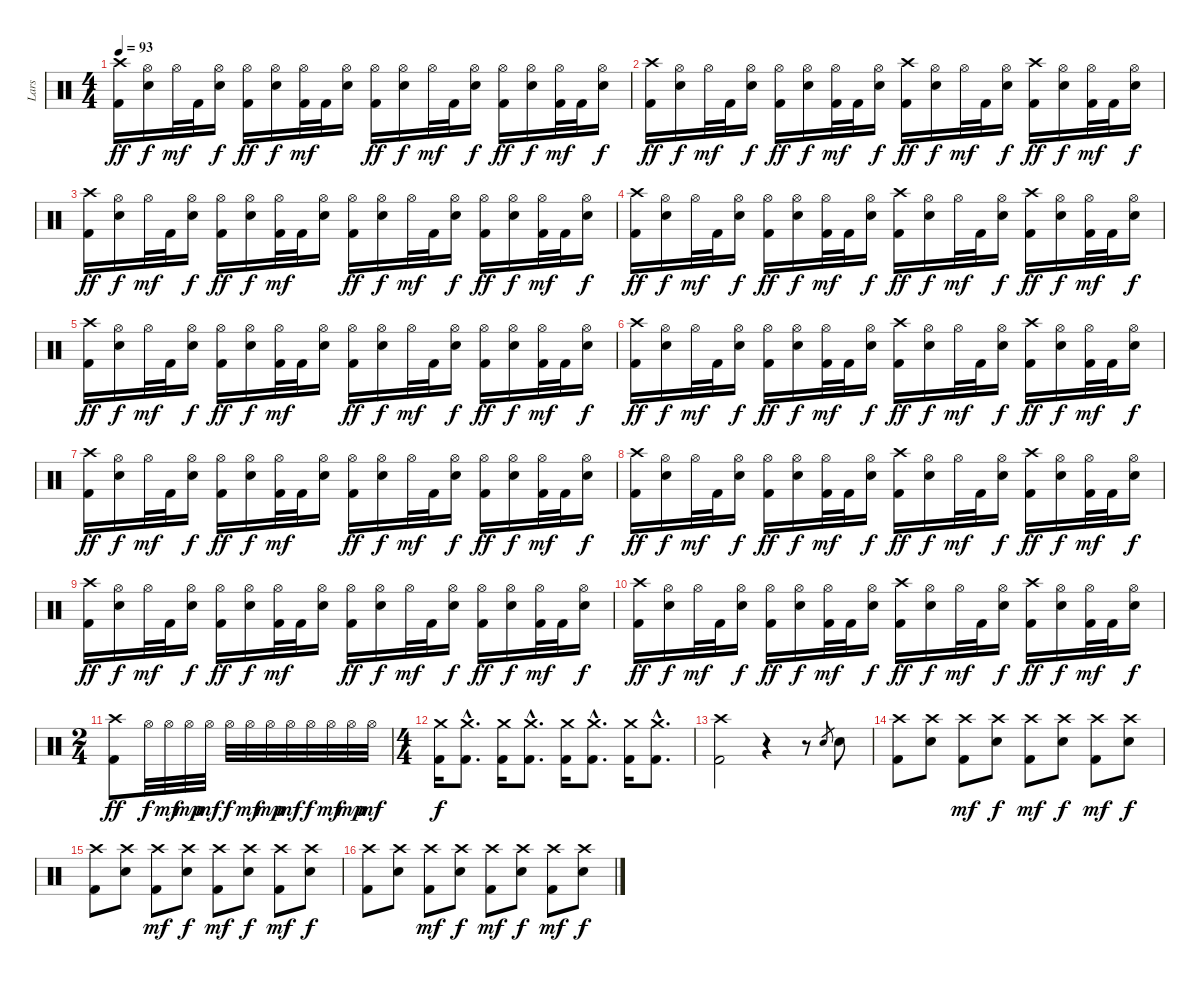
\track ("Lars" "Lars") {instrument percussion}
\staff {score}
\articulation defaults
\ts (4 4)
\tempo 93
\clef neutral
\ks c
("Crash high (hit)" "Kick (hit) 2").16{dy ff} ("Hi-Hat (open)" "Snare (hit) 2").16{dy f} "Hi-Hat (open)".32{dy mf} "Kick (hit) 2".32 ("Hi-Hat (open)" "Snare (hit) 2").16{dy f} ("Hi-Hat (open)" "Kick (hit) 2").16{dy ff} ("Hi-Hat (open)" "Snare (hit) 2").16{dy f} ("Hi-Hat (open)" "Kick (hit) 2").32{dy mf} "Kick (hit) 2".32 ("Hi-Hat (open)" "Snare (hit) 2").16 ("Hi-Hat (open)" "Kick (hit) 2").16{dy ff} ("Hi-Hat (open)" "Snare (hit) 2").16{dy f} "Hi-Hat (open)".32{dy mf} "Kick (hit) 2".32 ("Hi-Hat (open)" "Snare (hit) 2").16{dy f} ("Hi-Hat (open)" "Kick (hit) 2").16{dy ff} ("Hi-Hat (open)" "Snare (hit) 2").16{dy f} ("Hi-Hat (open)" "Kick (hit) 2").32{dy mf} "Kick (hit) 2".32 ("Hi-Hat (open)" "Snare (hit) 2").16{dy f} |
("Crash high (hit)" "Kick (hit) 2").16{dy ff} ("Hi-Hat (open)" "Snare (hit) 2").16{dy f} "Hi-Hat (open)".32{dy mf} "Kick (hit) 2".32 ("Hi-Hat (open)" "Snare (hit) 2").16{dy f} ("Hi-Hat (open)" "Kick (hit) 2").16{dy ff} ("Hi-Hat (open)" "Snare (hit) 2").16{dy f} ("Hi-Hat (open)" "Kick (hit) 2").32{dy mf} "Kick (hit) 2".32 ("Hi-Hat (open)" "Snare (hit) 2").16{dy f} ("Crash high (hit)" "Kick (hit) 2").16{dy ff} ("Hi-Hat (open)" "Snare (hit) 2").16{dy f} "Hi-Hat (open)".32{dy mf} "Kick (hit) 2".32 ("Hi-Hat (open)" "Snare (hit) 2").16{dy f} ("Crash high (hit)" "Kick (hit) 2").16{dy ff} ("Hi-Hat (open)" "Snare (hit) 2").16{dy f} ("Hi-Hat (open)" "Kick (hit) 2").32{dy mf} "Kick (hit) 2".32 ("Hi-Hat (open)" "Snare (hit) 2").16{dy f} |
("Crash high (hit)" "Kick (hit) 2").16{dy ff} ("Hi-Hat (open)" "Snare (hit) 2").16{dy f} "Hi-Hat (open)".32{dy mf} "Kick (hit) 2".32 ("Hi-Hat (open)" "Snare (hit) 2").16{dy f} ("Hi-Hat (open)" "Kick (hit) 2").16{dy ff} ("Hi-Hat (open)" "Snare (hit) 2").16{dy f} ("Hi-Hat (open)" "Kick (hit) 2").32{dy mf} "Kick (hit) 2".32 ("Hi-Hat (open)" "Snare (hit) 2").16 ("Hi-Hat (open)" "Kick (hit) 2").16{dy ff} ("Hi-Hat (open)" "Snare (hit) 2").16{dy f} "Hi-Hat (open)".32{dy mf} "Kick (hit) 2".32 ("Hi-Hat (open)" "Snare (hit) 2").16{dy f} ("Hi-Hat (open)" "Kick (hit) 2").16{dy ff} ("Hi-Hat (open)" "Snare (hit) 2").16{dy f} ("Hi-Hat (open)" "Kick (hit) 2").32{dy mf} "Kick (hit) 2".32 ("Hi-Hat (open)" "Snare (hit) 2").16{dy f} |
("Crash high (hit)" "Kick (hit) 2").16{dy ff} ("Hi-Hat (open)" "Snare (hit) 2").16{dy f} "Hi-Hat (open)".32{dy mf} "Kick (hit) 2".32 ("Hi-Hat (open)" "Snare (hit) 2").16{dy f} ("Hi-Hat (open)" "Kick (hit) 2").16{dy ff} ("Hi-Hat (open)" "Snare (hit) 2").16{dy f} ("Hi-Hat (open)" "Kick (hit) 2").32{dy mf} "Kick (hit) 2".32 ("Hi-Hat (open)" "Snare (hit) 2").16{dy f} ("Crash high (hit)" "Kick (hit) 2").16{dy ff} ("Hi-Hat (open)" "Snare (hit) 2").16{dy f} "Hi-Hat (open)".32{dy mf} "Kick (hit) 2".32 ("Hi-Hat (open)" "Snare (hit) 2").16{dy f} ("Crash high (hit)" "Kick (hit) 2").16{dy ff} ("Hi-Hat (open)" "Snare (hit) 2").16{dy f} ("Hi-Hat (open)" "Kick (hit) 2").32{dy mf} "Kick (hit) 2".32 ("Hi-Hat (open)" "Snare (hit) 2").16{dy f} |
("Crash high (hit)" "Kick (hit) 2").16{dy ff} ("Hi-Hat (open)" "Snare (hit) 2").16{dy f} "Hi-Hat (open)".32{dy mf} "Kick (hit) 2".32 ("Hi-Hat (open)" "Snare (hit) 2").16{dy f} ("Hi-Hat (open)" "Kick (hit) 2").16{dy ff} ("Hi-Hat (open)" "Snare (hit) 2").16{dy f} ("Hi-Hat (open)" "Kick (hit) 2").32{dy mf} "Kick (hit) 2".32 ("Hi-Hat (open)" "Snare (hit) 2").16 ("Hi-Hat (open)" "Kick (hit) 2").16{dy ff} ("Hi-Hat (open)" "Snare (hit) 2").16{dy f} "Hi-Hat (open)".32{dy mf} "Kick (hit) 2".32 ("Hi-Hat (open)" "Snare (hit) 2").16{dy f} ("Hi-Hat (open)" "Kick (hit) 2").16{dy ff} ("Hi-Hat (open)" "Snare (hit) 2").16{dy f} ("Hi-Hat (open)" "Kick (hit) 2").32{dy mf} "Kick (hit) 2".32 ("Hi-Hat (open)" "Snare (hit) 2").16{dy f} |
("Crash high (hit)" "Kick (hit) 2").16{dy ff} ("Hi-Hat (open)" "Snare (hit) 2").16{dy f} "Hi-Hat (open)".32{dy mf} "Kick (hit) 2".32 ("Hi-Hat (open)" "Snare (hit) 2").16{dy f} ("Hi-Hat (open)" "Kick (hit) 2").16{dy ff} ("Hi-Hat (open)" "Snare (hit) 2").16{dy f} ("Hi-Hat (open)" "Kick (hit) 2").32{dy mf} "Kick (hit) 2".32 ("Hi-Hat (open)" "Snare (hit) 2").16{dy f} ("Crash high (hit)" "Kick (hit) 2").16{dy ff} ("Hi-Hat (open)" "Snare (hit) 2").16{dy f} "Hi-Hat (open)".32{dy mf} "Kick (hit) 2".32 ("Hi-Hat (open)" "Snare (hit) 2").16{dy f} ("Crash high (hit)" "Kick (hit) 2").16{dy ff} ("Hi-Hat (open)" "Snare (hit) 2").16{dy f} ("Hi-Hat (open)" "Kick (hit) 2").32{dy mf} "Kick (hit) 2".32 ("Hi-Hat (open)" "Snare (hit) 2").16{dy f} |
("Crash high (hit)" "Kick (hit) 2").16{dy ff} ("Hi-Hat (open)" "Snare (hit) 2").16{dy f} "Hi-Hat (open)".32{dy mf} "Kick (hit) 2".32 ("Hi-Hat (open)" "Snare (hit) 2").16{dy f} ("Hi-Hat (open)" "Kick (hit) 2").16{dy ff} ("Hi-Hat (open)" "Snare (hit) 2").16{dy f} ("Hi-Hat (open)" "Kick (hit) 2").32{dy mf} "Kick (hit) 2".32 ("Hi-Hat (open)" "Snare (hit) 2").16 ("Hi-Hat (open)" "Kick (hit) 2").16{dy ff} ("Hi-Hat (open)" "Snare (hit) 2").16{dy f} "Hi-Hat (open)".32{dy mf} "Kick (hit) 2".32 ("Hi-Hat (open)" "Snare (hit) 2").16{dy f} ("Hi-Hat (open)" "Kick (hit) 2").16{dy ff} ("Hi-Hat (open)" "Snare (hit) 2").16{dy f} ("Hi-Hat (open)" "Kick (hit) 2").32{dy mf} "Kick (hit) 2".32 ("Hi-Hat (open)" "Snare (hit) 2").16{dy f} |
("Crash high (hit)" "Kick (hit) 2").16{dy ff} ("Hi-Hat (open)" "Snare (hit) 2").16{dy f} "Hi-Hat (open)".32{dy mf} "Kick (hit) 2".32 ("Hi-Hat (open)" "Snare (hit) 2").16{dy f} ("Hi-Hat (open)" "Kick (hit) 2").16{dy ff} ("Hi-Hat (open)" "Snare (hit) 2").16{dy f} ("Hi-Hat (open)" "Kick (hit) 2").32{dy mf} "Kick (hit) 2".32 ("Hi-Hat (open)" "Snare (hit) 2").16{dy f} ("Crash high (hit)" "Kick (hit) 2").16{dy ff} ("Hi-Hat (open)" "Snare (hit) 2").16{dy f} "Hi-Hat (open)".32{dy mf} "Kick (hit) 2".32 ("Hi-Hat (open)" "Snare (hit) 2").16{dy f} ("Crash high (hit)" "Kick (hit) 2").16{dy ff} ("Hi-Hat (open)" "Snare (hit) 2").16{dy f} ("Hi-Hat (open)" "Kick (hit) 2").32{dy mf} "Kick (hit) 2".32 ("Hi-Hat (open)" "Snare (hit) 2").16{dy f} |
("Crash high (hit)" "Kick (hit) 2").16{dy ff} ("Hi-Hat (open)" "Snare (hit) 2").16{dy f} "Hi-Hat (open)".32{dy mf} "Kick (hit) 2".32 ("Hi-Hat (open)" "Snare (hit) 2").16{dy f} ("Hi-Hat (open)" "Kick (hit) 2").16{dy ff} ("Hi-Hat (open)" "Snare (hit) 2").16{dy f} ("Hi-Hat (open)" "Kick (hit) 2").32{dy mf} "Kick (hit) 2".32 ("Hi-Hat (open)" "Snare (hit) 2").16 ("Hi-Hat (open)" "Kick (hit) 2").16{dy ff} ("Hi-Hat (open)" "Snare (hit) 2").16{dy f} "Hi-Hat (open)".32{dy mf} "Kick (hit) 2".32 ("Hi-Hat (open)" "Snare (hit) 2").16{dy f} ("Hi-Hat (open)" "Kick (hit) 2").16{dy ff} ("Hi-Hat (open)" "Snare (hit) 2").16{dy f} ("Hi-Hat (open)" "Kick (hit) 2").32{dy mf} "Kick (hit) 2".32 ("Hi-Hat (open)" "Snare (hit) 2").16{dy f} |
("Crash high (hit)" "Kick (hit) 2").16{dy ff} ("Hi-Hat (open)" "Snare (hit) 2").16{dy f} "Hi-Hat (open)".32{dy mf} "Kick (hit) 2".32 ("Hi-Hat (open)" "Snare (hit) 2").16{dy f} ("Hi-Hat (open)" "Kick (hit) 2").16{dy ff} ("Hi-Hat (open)" "Snare (hit) 2").16{dy f} ("Hi-Hat (open)" "Kick (hit) 2").32{dy mf} "Kick (hit) 2".32 ("Hi-Hat (open)" "Snare (hit) 2").16{dy f} ("Crash high (hit)" "Kick (hit) 2").16{dy ff} ("Hi-Hat (open)" "Snare (hit) 2").16{dy f} "Hi-Hat (open)".32{dy mf} "Kick (hit) 2".32 ("Hi-Hat (open)" "Snare (hit) 2").16{dy f} ("Crash high (hit)" "Kick (hit) 2").16{dy ff} ("Hi-Hat (open)" "Snare (hit) 2").16{dy f} ("Hi-Hat (open)" "Kick (hit) 2").32{dy mf} "Kick (hit) 2".32 ("Hi-Hat (open)" "Snare (hit) 2").16{dy f} |
\ts (2 4)
("Crash high (hit)" "Kick (hit) 2").8{dy ff} "Hi-Hat (open)".32{dy f} "Hi-Hat (open)".32{dy mf} "Hi-Hat (open)".32{dy mp} "Hi-Hat (open)".32{dy mf} "Hi-Hat (open)".32{dy f} "Hi-Hat (open)".32{dy mf} "Hi-Hat (open)".32{dy mp} "Hi-Hat (open)".32{dy mf} "Hi-Hat (open)".32{dy f} "Hi-Hat (open)".32{dy mf} "Hi-Hat (open)".32{dy mp} "Hi-Hat (open)".32{dy mf} |
\ts (4 4)
("Crash medium (hit)" "Kick (hit) 2").16{dy f} ("Crash medium (hit)"{hac} "Kick (hit) 2"{hac}).8{d} ("Crash medium (hit)" "Kick (hit) 2").16 ("Crash medium (hit)"{hac} "Kick (hit) 2"{hac}).8{d} ("Crash medium (hit)" "Kick (hit) 2").16 ("Crash medium (hit)"{hac} "Kick (hit) 2"{hac}).8{d} ("Crash medium (hit)" "Kick (hit) 2").16 ("Crash medium (hit)"{hac} "Kick (hit) 2"{hac}).8{d} |
("Crash high (hit)" "Kick (hit) 2").2 r.4 r.8 "Snare (hit) 2".8{gr} "Snare (hit) 2".8 |
("Crash high (hit)" "Kick (hit) 2").8 ("Crash high (hit)" "Snare (hit) 2").8 ("Crash high (hit)" "Kick (hit) 2").8{dy mf} ("Crash high (hit)" "Snare (hit) 2").8{dy f} ("Crash high (hit)" "Kick (hit) 2").8{dy mf} ("Crash high (hit)" "Snare (hit) 2").8{dy f} ("Crash high (hit)" "Kick (hit) 2").8{dy mf} ("Crash high (hit)" "Snare (hit) 2").8{dy f} |
("Crash high (hit)" "Kick (hit) 2").8 ("Crash high (hit)" "Snare (hit) 2").8 ("Crash high (hit)" "Kick (hit) 2").8{dy mf} ("Crash high (hit)" "Snare (hit) 2").8{dy f} ("Crash high (hit)" "Kick (hit) 2").8{dy mf} ("Crash high (hit)" "Snare (hit) 2").8{dy f} ("Crash high (hit)" "Kick (hit) 2").8{dy mf} ("Crash high (hit)" "Snare (hit) 2").8{dy f} |
("Crash high (hit)" "Kick (hit) 2").8 ("Crash high (hit)" "Snare (hit) 2").8 ("Crash high (hit)" "Kick (hit) 2").8{dy mf} ("Crash high (hit)" "Snare (hit) 2").8{dy f} ("Crash high (hit)" "Kick (hit) 2").8{dy mf} ("Crash high (hit)" "Snare (hit) 2").8{dy f} ("Crash high (hit)" "Kick (hit) 2").8{dy mf} ("Crash high (hit)" "Snare (hit) 2").8{dy f}
